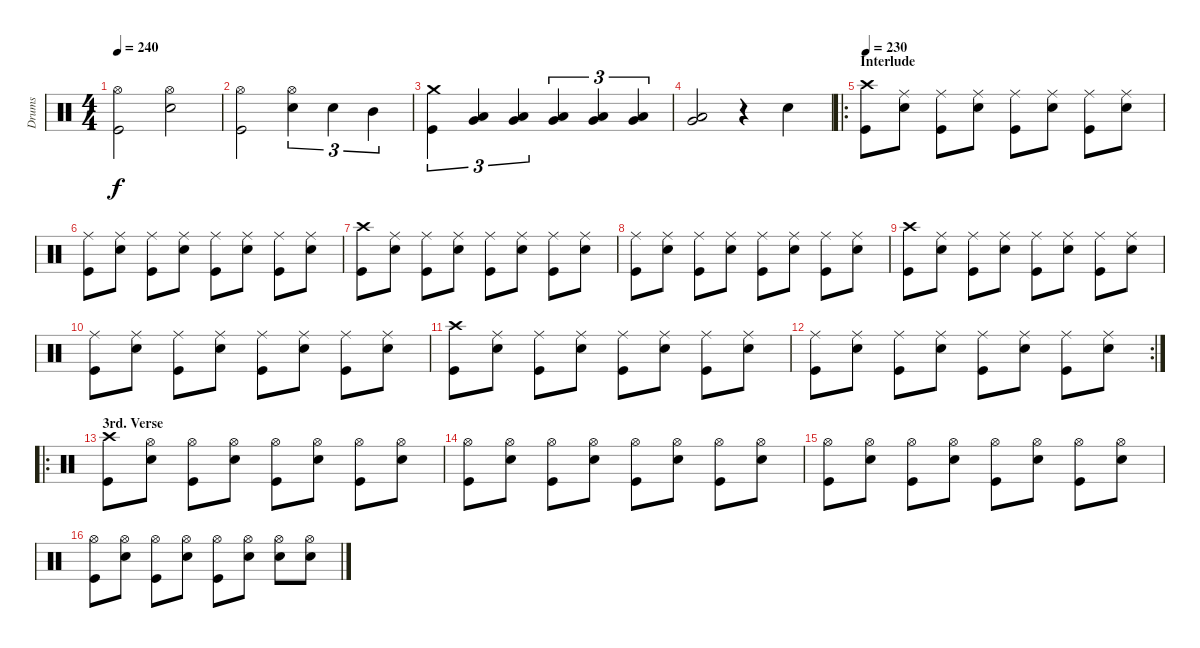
\track ("Drums" "Drums") {instrument percussion}
\staff {score}
\articulation defaults
\ts (4 4)
\tempo 240
\clef neutral
\ks c
("Hi-Hat (open)" "Kick (hit)").2{dy f} ("Hi-Hat (open)" "Electric Snare (hit)").2 |
("Hi-Hat (open)" "Kick (hit)").2 ("Hi-Hat (open)" "Electric Snare (hit)").4{tu (3 2)} "Electric Snare (hit)".4{tu (3 2)} "Mid Tom (hit)".4{tu (3 2)} |
("Crash medium (hit)" "Kick (hit)").4{tu (3 2)} ("Very Low Tom (hit)" "Low Tom (hit)").4{tu (3 2)} ("Very Low Tom (hit)" "Low Tom (hit)").4{tu (3 2)} ("Very Low Tom (hit)" "Low Tom (hit)").4{tu (3 2)} ("Very Low Tom (hit)" "Low Tom (hit)").4{tu (3 2)} ("Very Low Tom (hit)" "Low Tom (hit)").4{tu (3 2)} |
("Very Low Tom (hit)" "Low Tom (hit)").2 r.4 "Electric Snare (hit)".4 |
\ro
\section ("" "Interlude")
\tempo 230
("Crash high (hit)" "Kick (hit)").8 ("Ride (middle)" "Electric Snare (hit)").8 ("Ride (middle)" "Kick (hit)").8 ("Ride (middle)" "Electric Snare (hit)").8 ("Ride (middle)" "Kick (hit)").8 ("Ride (middle)" "Electric Snare (hit)").8 ("Ride (middle)" "Kick (hit)").8 ("Ride (middle)" "Electric Snare (hit)").8 |
("Ride (middle)" "Kick (hit)").8 ("Ride (middle)" "Electric Snare (hit)").8 ("Ride (middle)" "Kick (hit)").8 ("Ride (middle)" "Electric Snare (hit)").8 ("Ride (middle)" "Kick (hit)").8 ("Ride (middle)" "Electric Snare (hit)").8 ("Ride (middle)" "Kick (hit)").8 ("Ride (middle)" "Electric Snare (hit)").8 |
("Crash high (hit)" "Kick (hit)").8 ("Ride (middle)" "Electric Snare (hit)").8 ("Ride (middle)" "Kick (hit)").8 ("Ride (middle)" "Electric Snare (hit)").8 ("Ride (middle)" "Kick (hit)").8 ("Ride (middle)" "Electric Snare (hit)").8 ("Ride (middle)" "Kick (hit)").8 ("Ride (middle)" "Electric Snare (hit)").8 |
("Ride (middle)" "Kick (hit)").8 ("Ride (middle)" "Electric Snare (hit)").8 ("Ride (middle)" "Kick (hit)").8 ("Ride (middle)" "Electric Snare (hit)").8 ("Ride (middle)" "Kick (hit)").8 ("Ride (middle)" "Electric Snare (hit)").8 ("Ride (middle)" "Kick (hit)").8 ("Ride (middle)" "Electric Snare (hit)").8 |
("Crash high (hit)" "Kick (hit)").8 ("Ride (middle)" "Electric Snare (hit)").8 ("Ride (middle)" "Kick (hit)").8 ("Ride (middle)" "Electric Snare (hit)").8 ("Ride (middle)" "Kick (hit)").8 ("Ride (middle)" "Electric Snare (hit)").8 ("Ride (middle)" "Kick (hit)").8 ("Ride (middle)" "Electric Snare (hit)").8 |
("Ride (middle)" "Kick (hit)").8 ("Ride (middle)" "Electric Snare (hit)").8 ("Ride (middle)" "Kick (hit)").8 ("Ride (middle)" "Electric Snare (hit)").8 ("Ride (middle)" "Kick (hit)").8 ("Ride (middle)" "Electric Snare (hit)").8 ("Ride (middle)" "Kick (hit)").8 ("Ride (middle)" "Electric Snare (hit)").8 |
("Crash high (hit)" "Kick (hit)").8 ("Ride (middle)" "Electric Snare (hit)").8 ("Ride (middle)" "Kick (hit)").8 ("Ride (middle)" "Electric Snare (hit)").8 ("Ride (middle)" "Kick (hit)").8 ("Ride (middle)" "Electric Snare (hit)").8 ("Ride (middle)" "Kick (hit)").8 ("Ride (middle)" "Electric Snare (hit)").8 |
\rc 2
("Ride (middle)" "Kick (hit)").8 ("Ride (middle)" "Electric Snare (hit)").8 ("Ride (middle)" "Kick (hit)").8 ("Ride (middle)" "Electric Snare (hit)").8 ("Ride (middle)" "Kick (hit)").8 ("Ride (middle)" "Electric Snare (hit)").8 ("Ride (middle)" "Kick (hit)").8 ("Ride (middle)" "Electric Snare (hit)").8 |
\ro
\section ("" "3rd. Verse")
("Crash high (hit)" "Kick (hit)").8 ("Hi-Hat (open)" "Electric Snare (hit)").8 ("Hi-Hat (open)" "Kick (hit)").8 ("Hi-Hat (open)" "Electric Snare (hit)").8 ("Hi-Hat (open)" "Kick (hit)").8 ("Hi-Hat (open)" "Electric Snare (hit)").8 ("Hi-Hat (open)" "Kick (hit)").8 ("Hi-Hat (open)" "Electric Snare (hit)").8 |
("Hi-Hat (open)" "Kick (hit)").8 ("Hi-Hat (open)" "Electric Snare (hit)").8 ("Hi-Hat (open)" "Kick (hit)").8 ("Hi-Hat (open)" "Electric Snare (hit)").8 ("Hi-Hat (open)" "Kick (hit)").8 ("Hi-Hat (open)" "Electric Snare (hit)").8 ("Hi-Hat (open)" "Kick (hit)").8 ("Hi-Hat (open)" "Electric Snare (hit)").8 |
("Hi-Hat (open)" "Kick (hit)").8 ("Hi-Hat (open)" "Electric Snare (hit)").8 ("Hi-Hat (open)" "Kick (hit)").8 ("Hi-Hat (open)" "Electric Snare (hit)").8 ("Hi-Hat (open)" "Kick (hit)").8 ("Hi-Hat (open)" "Electric Snare (hit)").8 ("Hi-Hat (open)" "Kick (hit)").8 ("Hi-Hat (open)" "Electric Snare (hit)").8 |
("Hi-Hat (open)" "Kick (hit)").8 ("Hi-Hat (open)" "Electric Snare (hit)").8 ("Hi-Hat (open)" "Kick (hit)").8 ("Hi-Hat (open)" "Electric Snare (hit)").8 ("Hi-Hat (open)" "Kick (hit)").8 ("Hi-Hat (open)" "Electric Snare (hit)").8 ("Hi-Hat (open)" "Electric Snare (hit)").8 ("Hi-Hat (open)" "Electric Snare (hit)").8
